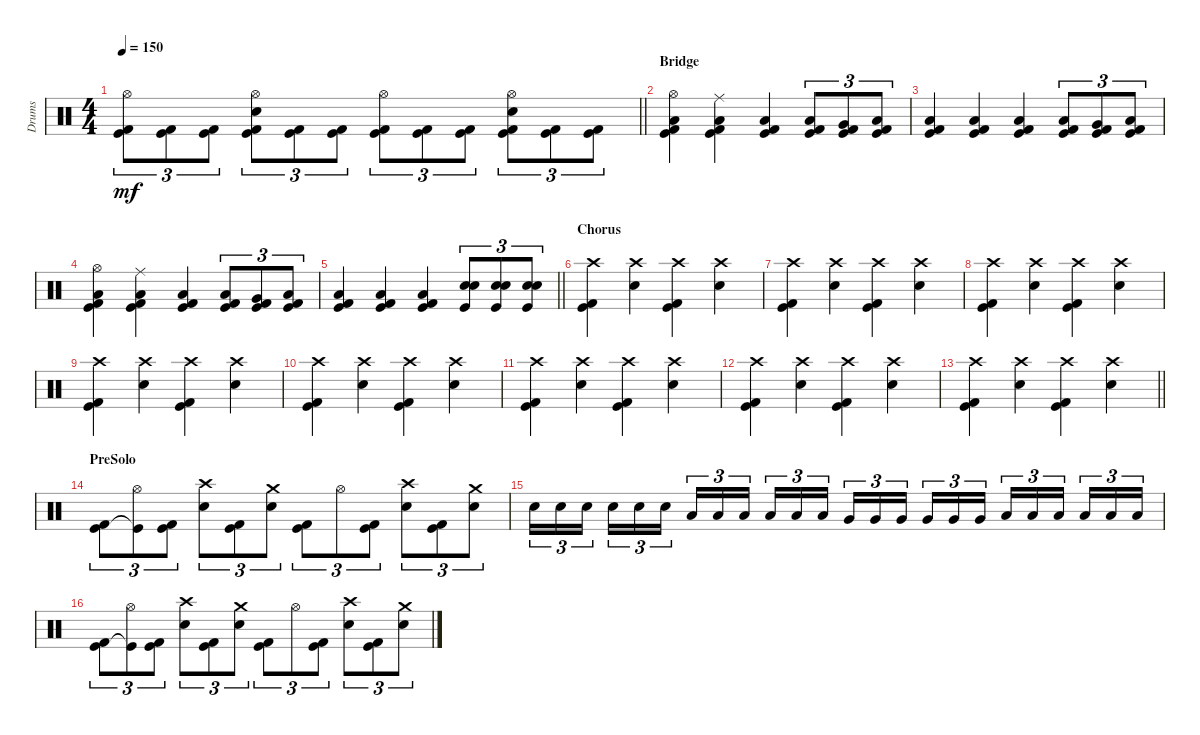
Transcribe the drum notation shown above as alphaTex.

\track ("Drums" "Drums") {instrument percussion}
\staff {score}
\articulation defaults
\ts (4 4)
\tempo 150
\clef neutral
\barLineRight lightlight
\ks c
("Hi-Hat (open)" "Kick (hit) 2" "Kick (hit)").8{tu (3 2) dy mf} ("Kick (hit) 2" "Kick (hit)").8{tu (3 2)} ("Kick (hit) 2" "Kick (hit)").8{tu (3 2)} ("Hi-Hat (open)" "Electric Snare (hit)" "Kick (hit) 2" "Kick (hit)").8{tu (3 2)} ("Kick (hit) 2" "Kick (hit)").8{tu (3 2)} ("Kick (hit) 2" "Kick (hit)").8{tu (3 2)} ("Hi-Hat (open)" "Kick (hit) 2" "Kick (hit)").8{tu (3 2)} ("Kick (hit) 2" "Kick (hit)").8{tu (3 2)} ("Kick (hit) 2" "Kick (hit)").8{tu (3 2)} ("Hi-Hat (open)" "Electric Snare (hit)" "Kick (hit) 2" "Kick (hit)").8{tu (3 2)} ("Kick (hit) 2" "Kick (hit)").8{tu (3 2)} ("Kick (hit) 2" "Kick (hit)").8{tu (3 2)} |
\section ("" "Bridge")
("Hi-Hat (open)" "Low Floor Tom (hit)" "Kick (hit) 2" "Kick (hit)").4 ("Ride (middle)" "Low Floor Tom (hit)" "Kick (hit) 2" "Kick (hit)").4 ("Low Floor Tom (hit)" "Kick (hit) 2" "Kick (hit)").4 ("Low Tom (hit)" "Kick (hit) 2" "Kick (hit)").8{tu (3 2)} ("Very Low Tom (hit)" "Kick (hit) 2" "Kick (hit)").8{tu (3 2)} ("Low Floor Tom (hit)" "Kick (hit) 2" "Kick (hit)").8{tu (3 2)} |
("Low Floor Tom (hit)" "Kick (hit) 2" "Kick (hit)").4 ("Low Floor Tom (hit)" "Kick (hit) 2" "Kick (hit)").4 ("Low Floor Tom (hit)" "Kick (hit) 2" "Kick (hit)").4 ("Low Floor Tom (hit)" "Kick (hit) 2" "Kick (hit)").8{tu (3 2)} ("Very Low Tom (hit)" "Kick (hit) 2" "Kick (hit)").8{tu (3 2)} ("Low Tom (hit)" "Kick (hit) 2" "Kick (hit)").8{tu (3 2)} |
("Hi-Hat (open)" "Low Floor Tom (hit)" "Kick (hit) 2" "Kick (hit)").4 ("Ride (middle)" "Low Floor Tom (hit)" "Kick (hit) 2" "Kick (hit)").4 ("Low Floor Tom (hit)" "Kick (hit) 2" "Kick (hit)").4 ("Low Tom (hit)" "Kick (hit) 2" "Kick (hit)").8{tu (3 2)} ("Very Low Tom (hit)" "Kick (hit) 2" "Kick (hit)").8{tu (3 2)} ("Low Floor Tom (hit)" "Kick (hit) 2" "Kick (hit)").8{tu (3 2)} |
\barLineRight lightlight
("Low Floor Tom (hit)" "Kick (hit) 2" "Kick (hit)").4 ("Low Floor Tom (hit)" "Kick (hit) 2" "Kick (hit)").4 ("Low Floor Tom (hit)" "Kick (hit) 2" "Kick (hit)").4 ("Electric Snare (hit)" "Electric Snare (hit)" "Kick (hit)").8{tu (3 2)} ("Electric Snare (hit)" "Electric Snare (hit)" "Kick (hit)").8{tu (3 2)} ("Electric Snare (hit)" "Electric Snare (hit)" "Kick (hit)").8{tu (3 2)} |
\section ("" "Chorus")
("Crash high (hit)" "Kick (hit)" "Kick (hit) 2").4 ("Crash high (hit)" "Electric Snare (hit)").4 ("Crash high (hit)" "Kick (hit)" "Kick (hit) 2").4 ("Crash high (hit)" "Electric Snare (hit)").4 |
("Crash high (hit)" "Kick (hit)" "Kick (hit) 2").4 ("Crash high (hit)" "Electric Snare (hit)").4 ("Crash high (hit)" "Kick (hit)" "Kick (hit) 2").4 ("Crash high (hit)" "Electric Snare (hit)").4 |
("Crash high (hit)" "Kick (hit)" "Kick (hit) 2").4 ("Crash high (hit)" "Electric Snare (hit)").4 ("Crash high (hit)" "Kick (hit)" "Kick (hit) 2").4 ("Crash high (hit)" "Electric Snare (hit)").4 |
("Crash high (hit)" "Kick (hit)" "Kick (hit) 2").4 ("Crash high (hit)" "Electric Snare (hit)").4 ("Crash high (hit)" "Kick (hit)" "Kick (hit) 2").4 ("Crash high (hit)" "Electric Snare (hit)").4 |
("Crash high (hit)" "Kick (hit)" "Kick (hit) 2").4 ("Crash high (hit)" "Electric Snare (hit)").4 ("Crash high (hit)" "Kick (hit)" "Kick (hit) 2").4 ("Crash high (hit)" "Electric Snare (hit)").4 |
("Crash high (hit)" "Kick (hit)" "Kick (hit) 2").4 ("Crash high (hit)" "Electric Snare (hit)").4 ("Crash high (hit)" "Kick (hit)" "Kick (hit) 2").4 ("Crash high (hit)" "Electric Snare (hit)").4 |
("Crash high (hit)" "Kick (hit)" "Kick (hit) 2").4 ("Crash high (hit)" "Electric Snare (hit)").4 ("Crash high (hit)" "Kick (hit)" "Kick (hit) 2").4 ("Crash high (hit)" "Electric Snare (hit)").4 |
\barLineRight lightlight
("Crash high (hit)" "Kick (hit)" "Kick (hit) 2").4 ("Crash high (hit)" "Electric Snare (hit)").4 ("Crash high (hit)" "Kick (hit)" "Kick (hit) 2").4 ("Crash high (hit)" "Electric Snare (hit)").4 |
\section ("" "PreSolo")
("Kick (hit) 2" "Kick (hit)").8{tu (3 2)} ("Hi-Hat (open)" "Kick (hit)"{t}).8{tu (3 2)} ("Kick (hit) 2" "Kick (hit)").8{tu (3 2)} ("Crash high (hit)" "Electric Snare (hit)").8{tu (3 2)} ("Kick (hit)" "Kick (hit) 2").8{tu (3 2)} ("Crash medium (hit)" "Electric Snare (hit)").8{tu (3 2)} ("Kick (hit) 2" "Kick (hit)").8{tu (3 2)} "Hi-Hat (open)".8{tu (3 2)} ("Kick (hit) 2" "Kick (hit)").8{tu (3 2)} ("Crash high (hit)" "Electric Snare (hit)").8{tu (3 2)} ("Kick (hit)" "Kick (hit) 2").8{tu (3 2)} ("Crash medium (hit)" "Electric Snare (hit)").8{tu (3 2)} |
"Electric Snare (hit)".16{tu (3 2)} "Electric Snare (hit)".16{tu (3 2)} "Electric Snare (hit)".16{tu (3 2) beam splitsecondary} "Electric Snare (hit)".16{tu (3 2)} "Electric Snare (hit)".16{tu (3 2)} "Electric Snare (hit)".16{tu (3 2)} "Low Tom (hit)".16{tu (3 2)} "Low Tom (hit)".16{tu (3 2)} "Low Tom (hit)".16{tu (3 2) beam splitsecondary} "Low Tom (hit)".16{tu (3 2)} "Low Tom (hit)".16{tu (3 2)} "Low Tom (hit)".16{tu (3 2)} "Very Low Tom (hit)".16{tu (3 2)} "Very Low Tom (hit)".16{tu (3 2)} "Very Low Tom (hit)".16{tu (3 2) beam splitsecondary} "Very Low Tom (hit)".16{tu (3 2)} "Very Low Tom (hit)".16{tu (3 2)} "Very Low Tom (hit)".16{tu (3 2)} "Low Floor Tom (hit)".16{tu (3 2)} "Low Floor Tom (hit)".16{tu (3 2)} "Low Floor Tom (hit)".16{tu (3 2) beam splitsecondary} "Low Floor Tom (hit)".16{tu (3 2)} "Low Floor Tom (hit)".16{tu (3 2)} "Low Floor Tom (hit)".16{tu (3 2)} |
("Kick (hit) 2" "Kick (hit)").8{tu (3 2)} ("Hi-Hat (open)" "Kick (hit)"{t}).8{tu (3 2)} ("Kick (hit) 2" "Kick (hit)").8{tu (3 2)} ("Crash high (hit)" "Electric Snare (hit)").8{tu (3 2)} ("Kick (hit)" "Kick (hit) 2").8{tu (3 2)} ("Crash medium (hit)" "Electric Snare (hit)").8{tu (3 2)} ("Kick (hit) 2" "Kick (hit)").8{tu (3 2)} "Hi-Hat (open)".8{tu (3 2)} ("Kick (hit) 2" "Kick (hit)").8{tu (3 2)} ("Crash high (hit)" "Electric Snare (hit)").8{tu (3 2)} ("Kick (hit)" "Kick (hit) 2").8{tu (3 2)} ("Crash medium (hit)" "Electric Snare (hit)").8{tu (3 2)}
